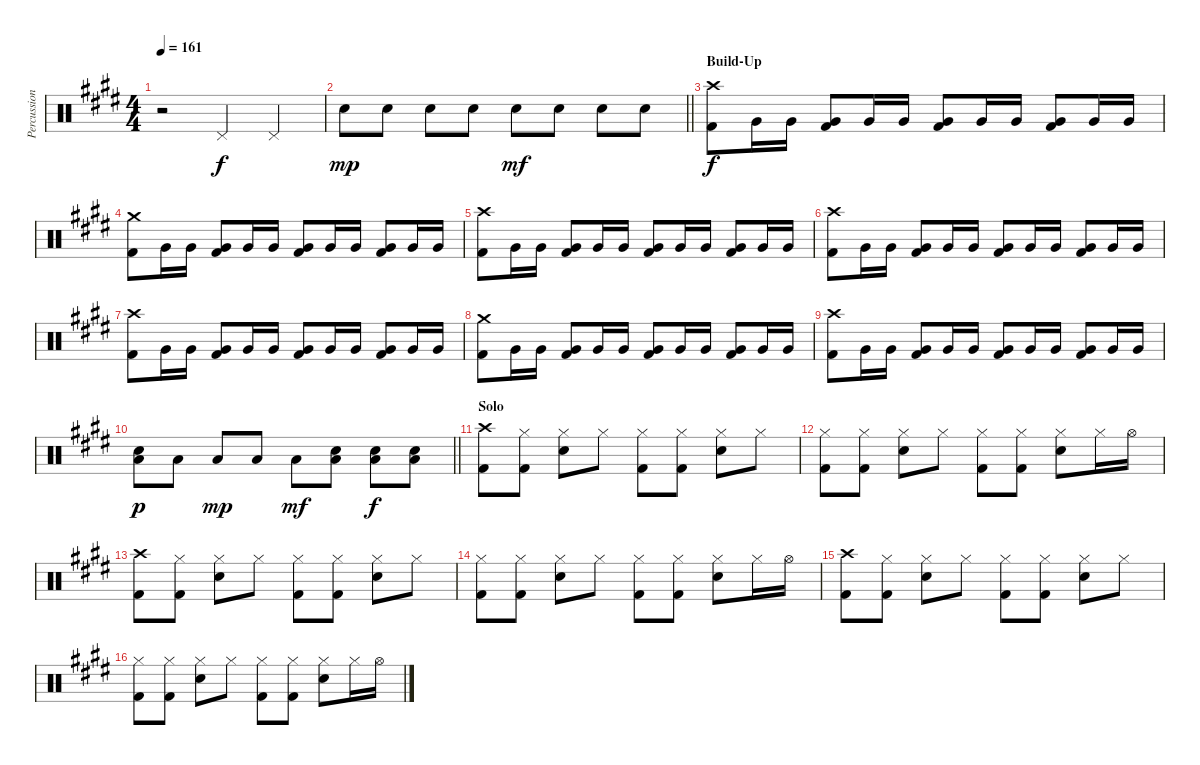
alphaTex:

\track ("Percussion" "Percussion") {instrument percussion}
\staff {score}
\articulation defaults
\ts (4 4)
\tempo 161
\clef neutral
\ks e
r.2{dy f} "Pedal Hi-Hat (hit)".4 "Pedal Hi-Hat (hit)".4 |
\barLineRight lightlight "Snare (hit) 2".8{dy mp} "Snare (hit) 2".8 "Snare (hit) 2".8 "Snare (hit) 2".8 "Snare (hit) 2".8{dy mf} "Snare (hit) 2".8 "Snare (hit) 2".8 "Snare (hit) 2".8
|
\section ("" "Build-Up")
("Crash high (hit)" "Kick (hit) 2").8{dy f} "Very Low Tom (hit)".16 "Very Low Tom (hit)".16 ("Very Low Tom (hit)" "Kick (hit) 2").8 "Very Low Tom (hit)".16 "Very Low Tom (hit)".16 ("Very Low Tom (hit)" "Kick (hit) 2").8 "Very Low Tom (hit)".16 "Very Low Tom (hit)".16 ("Very Low Tom (hit)" "Kick (hit) 2").8 "Very Low Tom (hit)".16 "Very Low Tom (hit)".16 |
("Crash medium (hit)" "Kick (hit) 2").8 "Very Low Tom (hit)".16 "Very Low Tom (hit)".16 ("Very Low Tom (hit)" "Kick (hit) 2").8 "Very Low Tom (hit)".16 "Very Low Tom (hit)".16 ("Very Low Tom (hit)" "Kick (hit) 2").8 "Very Low Tom (hit)".16 "Very Low Tom (hit)".16 ("Very Low Tom (hit)" "Kick (hit) 2").8 "Very Low Tom (hit)".16 "Very Low Tom (hit)".16 |
("Crash high (hit)" "Kick (hit) 2").8 "Very Low Tom (hit)".16 "Very Low Tom (hit)".16 ("Very Low Tom (hit)" "Kick (hit) 2").8 "Very Low Tom (hit)".16 "Very Low Tom (hit)".16 ("Very Low Tom (hit)" "Kick (hit) 2").8 "Very Low Tom (hit)".16 "Very Low Tom (hit)".16 ("Very Low Tom (hit)" "Kick (hit) 2").8 "Very Low Tom (hit)".16 "Very Low Tom (hit)".16 |
("Crash high (hit)" "Kick (hit) 2").8 "Very Low Tom (hit)".16 "Very Low Tom (hit)".16 ("Very Low Tom (hit)" "Kick (hit) 2").8 "Very Low Tom (hit)".16 "Very Low Tom (hit)".16 ("Very Low Tom (hit)" "Kick (hit) 2").8 "Very Low Tom (hit)".16 "Very Low Tom (hit)".16 ("Very Low Tom (hit)" "Kick (hit) 2").8 "Very Low Tom (hit)".16 "Very Low Tom (hit)".16 |
("Crash high (hit)" "Kick (hit) 2").8 "Very Low Tom (hit)".16 "Very Low Tom (hit)".16 ("Very Low Tom (hit)" "Kick (hit) 2").8 "Very Low Tom (hit)".16 "Very Low Tom (hit)".16 ("Very Low Tom (hit)" "Kick (hit) 2").8 "Very Low Tom (hit)".16 "Very Low Tom (hit)".16 ("Very Low Tom (hit)" "Kick (hit) 2").8 "Very Low Tom (hit)".16 "Very Low Tom (hit)".16 |
("Crash medium (hit)" "Kick (hit) 2").8 "Very Low Tom (hit)".16 "Very Low Tom (hit)".16 ("Very Low Tom (hit)" "Kick (hit) 2").8 "Very Low Tom (hit)".16 "Very Low Tom (hit)".16 ("Very Low Tom (hit)" "Kick (hit) 2").8 "Very Low Tom (hit)".16 "Very Low Tom (hit)".16 ("Very Low Tom (hit)" "Kick (hit) 2").8 "Very Low Tom (hit)".16 "Very Low Tom (hit)".16 |
("Crash high (hit)" "Kick (hit) 2").8 "Very Low Tom (hit)".16 "Very Low Tom (hit)".16 ("Very Low Tom (hit)" "Kick (hit) 2").8 "Very Low Tom (hit)".16 "Very Low Tom (hit)".16 ("Very Low Tom (hit)" "Kick (hit) 2").8 "Very Low Tom (hit)".16 "Very Low Tom (hit)".16 ("Very Low Tom (hit)" "Kick (hit) 2").8 "Very Low Tom (hit)".16 "Very Low Tom (hit)".16 |
\barLineRight lightlight
("Snare (hit) 2" "Low Floor Tom (hit)").8{dy p} "Low Floor Tom (hit)".8 "Low Floor Tom (hit)".8{dy mp} "Low Floor Tom (hit)".8 "Low Floor Tom (hit)".8{dy mf} ("Snare (hit) 2" "Low Floor Tom (hit)").8 ("Snare (hit) 2" "Low Floor Tom (hit)").8{dy f} ("Snare (hit) 2" "Low Floor Tom (hit)").8 |
\section ("" "Solo")
("Crash high (hit)" "Kick (hit) 2").8 ("Hi-Hat (closed)" "Kick (hit) 2").8 ("Hi-Hat (closed)" "Snare (hit) 2").8 "Hi-Hat (closed)".8 ("Hi-Hat (closed)" "Kick (hit) 2").8 ("Hi-Hat (closed)" "Kick (hit) 2").8 ("Hi-Hat (closed)" "Snare (hit) 2").8 "Hi-Hat (closed)".8 |
("Hi-Hat (closed)" "Kick (hit) 2").8 ("Hi-Hat (closed)" "Kick (hit) 2").8 ("Hi-Hat (closed)" "Snare (hit) 2").8 "Hi-Hat (closed)".8 ("Hi-Hat (closed)" "Kick (hit) 2").8 ("Hi-Hat (closed)" "Kick (hit) 2").8 ("Hi-Hat (closed)" "Snare (hit) 2").8 "Hi-Hat (closed)".16 "Hi-Hat (open)".16 |
("Crash high (hit)" "Kick (hit) 2").8 ("Hi-Hat (closed)" "Kick (hit) 2").8 ("Hi-Hat (closed)" "Snare (hit) 2").8 "Hi-Hat (closed)".8 ("Hi-Hat (closed)" "Kick (hit) 2").8 ("Hi-Hat (closed)" "Kick (hit) 2").8 ("Hi-Hat (closed)" "Snare (hit) 2").8 "Hi-Hat (closed)".8 |
("Hi-Hat (closed)" "Kick (hit) 2").8 ("Hi-Hat (closed)" "Kick (hit) 2").8 ("Hi-Hat (closed)" "Snare (hit) 2").8 "Hi-Hat (closed)".8 ("Hi-Hat (closed)" "Kick (hit) 2").8 ("Hi-Hat (closed)" "Kick (hit) 2").8 ("Hi-Hat (closed)" "Snare (hit) 2").8 "Hi-Hat (closed)".16 "Hi-Hat (open)".16 |
("Crash high (hit)" "Kick (hit) 2").8 ("Hi-Hat (closed)" "Kick (hit) 2").8 ("Hi-Hat (closed)" "Snare (hit) 2").8 "Hi-Hat (closed)".8 ("Hi-Hat (closed)" "Kick (hit) 2").8 ("Hi-Hat (closed)" "Kick (hit) 2").8 ("Hi-Hat (closed)" "Snare (hit) 2").8 "Hi-Hat (closed)".8 |
("Hi-Hat (closed)" "Kick (hit) 2").8 ("Hi-Hat (closed)" "Kick (hit) 2").8 ("Hi-Hat (closed)" "Snare (hit) 2").8 "Hi-Hat (closed)".8 ("Hi-Hat (closed)" "Kick (hit) 2").8 ("Hi-Hat (closed)" "Kick (hit) 2").8 ("Hi-Hat (closed)" "Snare (hit) 2").8 "Hi-Hat (closed)".16 "Hi-Hat (open)".16
